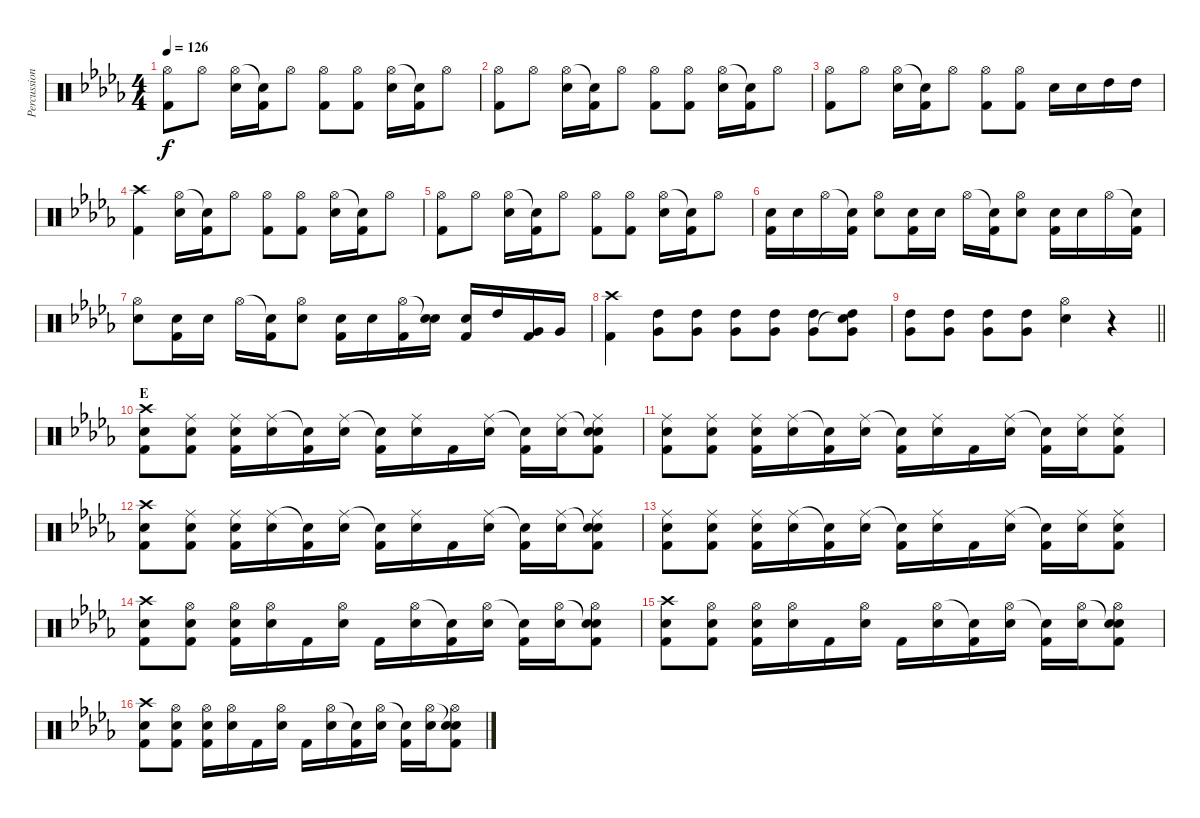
\track ("Percussion" "Percussion") {instrument percussion}
\staff {score}
\articulation defaults
\ts (4 4)
\tempo 126
\clef neutral
\ks db
("Hi-Hat (open)" "Kick (hit) 2").8{dy f} "Hi-Hat (open)".8 ("Hi-Hat (open)" "Electric Snare (hit)").16 ("Snare (hit)"{t} "Kick (hit) 2").16 "Hi-Hat (open)".8 ("Hi-Hat (open)" "Kick (hit) 2").8 ("Hi-Hat (open)" "Kick (hit) 2").8 ("Hi-Hat (open)" "Electric Snare (hit)").16 ("Snare (hit)"{t} "Kick (hit) 2").16 "Hi-Hat (open)".8 |
("Hi-Hat (open)" "Kick (hit) 2").8 "Hi-Hat (open)".8 ("Hi-Hat (open)" "Electric Snare (hit)").16 ("Snare (hit)"{t} "Kick (hit) 2").16 "Hi-Hat (open)".8 ("Hi-Hat (open)" "Kick (hit) 2").8 ("Hi-Hat (open)" "Kick (hit) 2").8 ("Hi-Hat (open)" "Electric Snare (hit)").16 ("Snare (hit)"{t} "Kick (hit) 2").16 "Hi-Hat (open)".8 |
("Hi-Hat (open)" "Kick (hit) 2").8 "Hi-Hat (open)".8 ("Hi-Hat (open)" "Electric Snare (hit)").16 ("Snare (hit)"{t} "Kick (hit) 2").16 "Hi-Hat (open)".8 ("Hi-Hat (open)" "Kick (hit) 2").8 ("Hi-Hat (open)" "Kick (hit) 2").8 "Electric Snare (hit)".16 "Electric Snare (hit)".16 "High Tom (hit)".16 "High Tom (hit)".16 |
("Crash high (hit)" "Kick (hit) 2").4 ("Hi-Hat (open)" "Electric Snare (hit)").16 ("Snare (hit)"{t} "Kick (hit) 2").16 "Hi-Hat (open)".8 ("Hi-Hat (open)" "Kick (hit) 2").8 ("Hi-Hat (open)" "Kick (hit) 2").8 ("Hi-Hat (open)" "Electric Snare (hit)").16 ("Snare (hit)"{t} "Kick (hit) 2").16 "Hi-Hat (open)".8 |
("Hi-Hat (open)" "Kick (hit) 2").8 "Hi-Hat (open)".8 ("Hi-Hat (open)" "Electric Snare (hit)").16 ("Snare (hit)"{t} "Kick (hit) 2").16 "Hi-Hat (open)".8 ("Hi-Hat (open)" "Kick (hit) 2").8 ("Hi-Hat (open)" "Kick (hit) 2").8 ("Hi-Hat (open)" "Electric Snare (hit)").16 ("Snare (hit)"{t} "Kick (hit) 2").16 "Hi-Hat (open)".8 |
("Electric Snare (hit)" "Kick (hit) 2").16 "Electric Snare (hit)".16 "Hi-Hat (open)".16 ("Snare (hit)"{t} "Kick (hit) 2").16 ("Hi-Hat (open)" "Electric Snare (hit)").8 ("Electric Snare (hit)" "Kick (hit) 2").16 "Electric Snare (hit)".16 "Hi-Hat (open)".16 ("Snare (hit)"{t} "Kick (hit) 2").16 ("Hi-Hat (open)" "Electric Snare (hit)").8 ("Electric Snare (hit)" "Kick (hit) 2").16 "Electric Snare (hit)".16 "Hi-Hat (open)".16 ("Snare (hit)"{t} "Kick (hit) 2").16 |
("Hi-Hat (open)" "Electric Snare (hit)").8 ("Electric Snare (hit)" "Kick (hit) 2").16 "Electric Snare (hit)".16 "Hi-Hat (open)".16 ("Snare (hit)"{t} "Kick (hit) 2").16 ("Hi-Hat (open)" "Electric Snare (hit)").8 ("Electric Snare (hit)" "Kick (hit) 2").16 "Electric Snare (hit)".16 ("Hi-Hat (open)" "Kick (hit) 2").16 ("Snare (hit)"{t} "Electric Snare (hit)").16 ("Electric Snare (hit)" "Kick (hit) 2").16 "High Tom (hit)".16 ("Very Low Tom (hit)" "Kick (hit) 2").16 "Very Low Tom (hit)".16 |
("Crash high (hit)" "Kick (hit) 2").4 ("High Tom (hit)" "Very Low Tom (hit)").8 ("High Tom (hit)" "Very Low Tom (hit)").8 ("High Tom (hit)" "Very Low Tom (hit)").8 ("High Tom (hit)" "Very Low Tom (hit)").8 ("High Tom (hit)" "Very Low Tom (hit)").8 ("High Tom (hit)" "Snare (hit)"{t} "Very Low Tom (hit)").8 |
\barLineRight lightlight
("High Tom (hit)" "Very Low Tom (hit)").8 ("High Tom (hit)" "Very Low Tom (hit)").8 ("High Tom (hit)" "Very Low Tom (hit)").8 ("High Tom (hit)" "Very Low Tom (hit)").8 ("Hi-Hat (open)" "Electric Snare (hit)").4 r.4 |
\section ("" "E")
("Crash high (hit)" "Electric Snare (hit)" "Kick (hit) 2").8 ("Electric Snare (hit)" "Kick (hit) 2" "Ride (middle)").8 ("Ride (middle)" "Electric Snare (hit)" "Kick (hit) 2").16 ("Ride (middle)" "Electric Snare (hit)").16 ("Snare (hit)"{t} "Kick (hit) 2").16 ("Ride (middle)" "Electric Snare (hit)").16 ("Snare (hit)"{t} "Kick (hit) 2").16 ("Ride (middle)" "Electric Snare (hit)").16 "Kick (hit) 2".16 ("Ride (middle)" "Electric Snare (hit)").16 ("Snare (hit)"{t} "Kick (hit) 2").16 ("Ride (middle)" "Electric Snare (hit)").16 ("Snare (hit)"{t} "Ride (middle)" "Electric Snare (hit)" "Kick (hit) 2").8 |
("Ride (middle)" "Electric Snare (hit)" "Kick (hit) 2").8 ("Electric Snare (hit)" "Kick (hit) 2" "Ride (middle)").8 ("Ride (middle)" "Electric Snare (hit)" "Kick (hit) 2").16 ("Ride (middle)" "Electric Snare (hit)").16 ("Snare (hit)"{t} "Kick (hit) 2").16 ("Ride (middle)" "Electric Snare (hit)").16 ("Snare (hit)"{t} "Kick (hit) 2").16 ("Ride (middle)" "Electric Snare (hit)").16 "Kick (hit) 2".16 ("Ride (middle)" "Electric Snare (hit)").16 ("Snare (hit)"{t} "Kick (hit) 2").16 ("Ride (middle)" "Electric Snare (hit)").16 ("Ride (middle)" "Electric Snare (hit)" "Kick (hit) 2").8 |
("Crash high (hit)" "Electric Snare (hit)" "Kick (hit) 2").8 ("Electric Snare (hit)" "Kick (hit) 2" "Ride (middle)").8 ("Ride (middle)" "Electric Snare (hit)" "Kick (hit) 2").16 ("Ride (middle)" "Electric Snare (hit)").16 ("Snare (hit)"{t} "Kick (hit) 2").16 ("Ride (middle)" "Electric Snare (hit)").16 ("Snare (hit)"{t} "Kick (hit) 2").16 ("Ride (middle)" "Electric Snare (hit)").16 "Kick (hit) 2".16 ("Ride (middle)" "Electric Snare (hit)").16 ("Snare (hit)"{t} "Kick (hit) 2").16 ("Ride (middle)" "Electric Snare (hit)").16 ("Snare (hit)"{t} "Ride (middle)" "Electric Snare (hit)" "Kick (hit) 2").8 |
("Ride (middle)" "Electric Snare (hit)" "Kick (hit) 2").8 ("Electric Snare (hit)" "Kick (hit) 2" "Ride (middle)").8 ("Ride (middle)" "Electric Snare (hit)" "Kick (hit) 2").16 ("Ride (middle)" "Electric Snare (hit)").16 ("Snare (hit)"{t} "Kick (hit) 2").16 ("Ride (middle)" "Electric Snare (hit)").16 ("Snare (hit)"{t} "Kick (hit) 2").16 ("Ride (middle)" "Electric Snare (hit)").16 "Kick (hit) 2".16 ("Ride (middle)" "Electric Snare (hit)").16 ("Snare (hit)"{t} "Kick (hit) 2").16 ("Ride (middle)" "Electric Snare (hit)").16 ("Ride (middle)" "Electric Snare (hit)" "Kick (hit) 2").8 |
("Crash high (hit)" "Electric Snare (hit)" "Kick (hit) 2").8 ("Electric Snare (hit)" "Kick (hit) 2" "Hi-Hat (open)").8 ("Hi-Hat (open)" "Electric Snare (hit)" "Kick (hit) 2").16 ("Hi-Hat (open)" "Electric Snare (hit)").16 "Kick (hit) 2".16 ("Hi-Hat (open)" "Electric Snare (hit)").16 "Kick (hit) 2".16 ("Hi-Hat (open)" "Electric Snare (hit)").16 ("Snare (hit)"{t} "Kick (hit) 2").16 ("Hi-Hat (open)" "Electric Snare (hit)").16 ("Snare (hit)"{t} "Kick (hit) 2").16 ("Hi-Hat (open)" "Electric Snare (hit)").16 ("Snare (hit)"{t} "Hi-Hat (open)" "Electric Snare (hit)" "Kick (hit) 2").8 |
("Crash high (hit)" "Electric Snare (hit)" "Kick (hit) 2").8 ("Electric Snare (hit)" "Kick (hit) 2" "Hi-Hat (open)").8 ("Hi-Hat (open)" "Electric Snare (hit)" "Kick (hit) 2").16 ("Hi-Hat (open)" "Electric Snare (hit)").16 "Kick (hit) 2".16 ("Hi-Hat (open)" "Electric Snare (hit)").16 "Kick (hit) 2".16 ("Hi-Hat (open)" "Electric Snare (hit)").16 ("Snare (hit)"{t} "Kick (hit) 2").16 ("Hi-Hat (open)" "Electric Snare (hit)").16 ("Snare (hit)"{t} "Kick (hit) 2").16 ("Hi-Hat (open)" "Electric Snare (hit)").16 ("Snare (hit)"{t} "Hi-Hat (open)" "Electric Snare (hit)" "Kick (hit) 2").8 |
("Crash high (hit)" "Electric Snare (hit)" "Kick (hit) 2").8 ("Electric Snare (hit)" "Kick (hit) 2" "Hi-Hat (open)").8 ("Hi-Hat (open)" "Electric Snare (hit)" "Kick (hit) 2").16 ("Hi-Hat (open)" "Electric Snare (hit)").16 "Kick (hit) 2".16 ("Hi-Hat (open)" "Electric Snare (hit)").16 "Kick (hit) 2".16 ("Hi-Hat (open)" "Electric Snare (hit)").16 ("Snare (hit)"{t} "Kick (hit) 2").16 ("Hi-Hat (open)" "Electric Snare (hit)").16 ("Snare (hit)"{t} "Kick (hit) 2").16 ("Hi-Hat (open)" "Electric Snare (hit)").16 ("Snare (hit)"{t} "Hi-Hat (open)" "Electric Snare (hit)" "Kick (hit) 2").8
